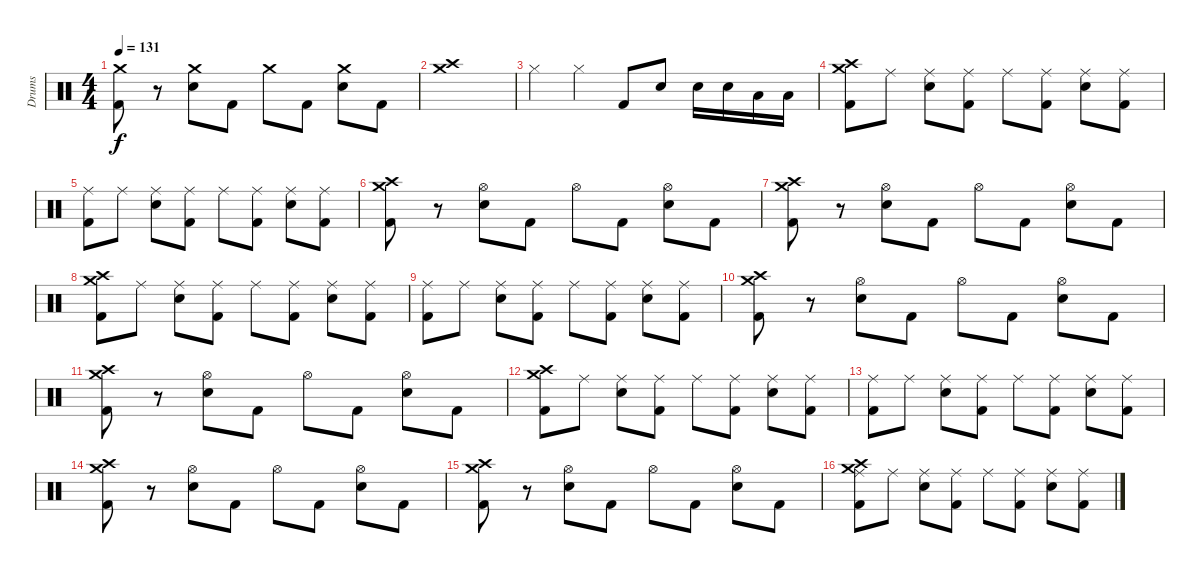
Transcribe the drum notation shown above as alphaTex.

\track ("Drums" "Drums") {instrument percussion}
\staff {score}
\articulation defaults
\ts (4 4)
\tempo 131
\clef neutral
\ks c
("Crash medium (hit)" "Kick (hit) 2").8{dy f} r.8 ("Crash medium (hit)" "Snare (hit) 2").8 "Kick (hit) 2".8 "Crash medium (hit)".8 "Kick (hit) 2".8 ("Crash medium (hit)" "Snare (hit) 2").8 "Kick (hit) 2".8 |
("Crash high (hit)" "Crash medium (hit)").1 |
"Hi-Hat (closed)".4 "Hi-Hat (closed)".4 "Kick (hit) 2".8 "Snare (hit) 2".8 "Snare (hit) 2".16 "Snare (hit) 2".16 "Low Tom (hit)".16 "Low Tom (hit)".16 |
("Crash high (hit)" "Crash medium (hit)" "Kick (hit) 2").8 "Ride (middle)".8 ("Ride (middle)" "Snare (hit) 2").8 ("Ride (middle)" "Kick (hit) 2").8 "Ride (middle)".8 ("Ride (middle)" "Kick (hit) 2").8 ("Ride (middle)" "Snare (hit) 2").8 ("Ride (middle)" "Kick (hit) 2").8 |
("Ride (middle)" "Kick (hit) 2").8 "Ride (middle)".8 ("Ride (middle)" "Snare (hit) 2").8 ("Ride (middle)" "Kick (hit) 2").8 "Ride (middle)".8 ("Ride (middle)" "Kick (hit) 2").8 ("Ride (middle)" "Snare (hit) 2").8 ("Ride (middle)" "Kick (hit) 2").8 |
("Crash high (hit)" "Crash medium (hit)" "Kick (hit) 2").8 r.8 ("Hi-Hat (open)" "Snare (hit) 2").8 "Kick (hit) 2".8 "Hi-Hat (open)".8 "Kick (hit) 2".8 ("Hi-Hat (open)" "Snare (hit) 2").8 "Kick (hit) 2".8 |
("Crash high (hit)" "Crash medium (hit)" "Kick (hit) 2").8 r.8 ("Hi-Hat (open)" "Snare (hit) 2").8 "Kick (hit) 2".8 "Hi-Hat (open)".8 "Kick (hit) 2".8 ("Hi-Hat (open)" "Snare (hit) 2").8 "Kick (hit) 2".8 |
("Crash high (hit)" "Crash medium (hit)" "Kick (hit) 2").8 "Ride (middle)".8 ("Ride (middle)" "Snare (hit) 2").8 ("Ride (middle)" "Kick (hit) 2").8 "Ride (middle)".8 ("Ride (middle)" "Kick (hit) 2").8 ("Ride (middle)" "Snare (hit) 2").8 ("Ride (middle)" "Kick (hit) 2").8 |
("Ride (middle)" "Kick (hit) 2").8 "Ride (middle)".8 ("Ride (middle)" "Snare (hit) 2").8 ("Ride (middle)" "Kick (hit) 2").8 "Ride (middle)".8 ("Ride (middle)" "Kick (hit) 2").8 ("Ride (middle)" "Snare (hit) 2").8 ("Ride (middle)" "Kick (hit) 2").8 |
("Crash high (hit)" "Crash medium (hit)" "Kick (hit) 2").8 r.8 ("Hi-Hat (open)" "Snare (hit) 2").8 "Kick (hit) 2".8 "Hi-Hat (open)".8 "Kick (hit) 2".8 ("Hi-Hat (open)" "Snare (hit) 2").8 "Kick (hit) 2".8 |
("Crash high (hit)" "Crash medium (hit)" "Kick (hit) 2").8 r.8 ("Hi-Hat (open)" "Snare (hit) 2").8 "Kick (hit) 2".8 "Hi-Hat (open)".8 "Kick (hit) 2".8 ("Hi-Hat (open)" "Snare (hit) 2").8 "Kick (hit) 2".8 |
("Crash high (hit)" "Crash medium (hit)" "Kick (hit) 2").8 "Ride (middle)".8 ("Ride (middle)" "Snare (hit) 2").8 ("Ride (middle)" "Kick (hit) 2").8 "Ride (middle)".8 ("Ride (middle)" "Kick (hit) 2").8 ("Ride (middle)" "Snare (hit) 2").8 ("Ride (middle)" "Kick (hit) 2").8 |
("Ride (middle)" "Kick (hit) 2").8 "Ride (middle)".8 ("Ride (middle)" "Snare (hit) 2").8 ("Ride (middle)" "Kick (hit) 2").8 "Ride (middle)".8 ("Ride (middle)" "Kick (hit) 2").8 ("Ride (middle)" "Snare (hit) 2").8 ("Ride (middle)" "Kick (hit) 2").8 |
("Crash high (hit)" "Crash medium (hit)" "Kick (hit) 2").8 r.8 ("Hi-Hat (open)" "Snare (hit) 2").8 "Kick (hit) 2".8 "Hi-Hat (open)".8 "Kick (hit) 2".8 ("Hi-Hat (open)" "Snare (hit) 2").8 "Kick (hit) 2".8 |
("Crash high (hit)" "Crash medium (hit)" "Kick (hit) 2").8 r.8 ("Hi-Hat (open)" "Snare (hit) 2").8 "Kick (hit) 2".8 "Hi-Hat (open)".8 "Kick (hit) 2".8 ("Hi-Hat (open)" "Snare (hit) 2").8 "Kick (hit) 2".8 |
("Crash high (hit)" "Crash medium (hit)" "Ride (middle)" "Kick (hit) 2").8 "Ride (middle)".8 ("Ride (middle)" "Snare (hit) 2").8 ("Ride (middle)" "Kick (hit) 2").8 "Ride (middle)".8 ("Ride (middle)" "Kick (hit) 2").8 ("Ride (middle)" "Snare (hit) 2").8 ("Ride (middle)" "Kick (hit) 2").8
